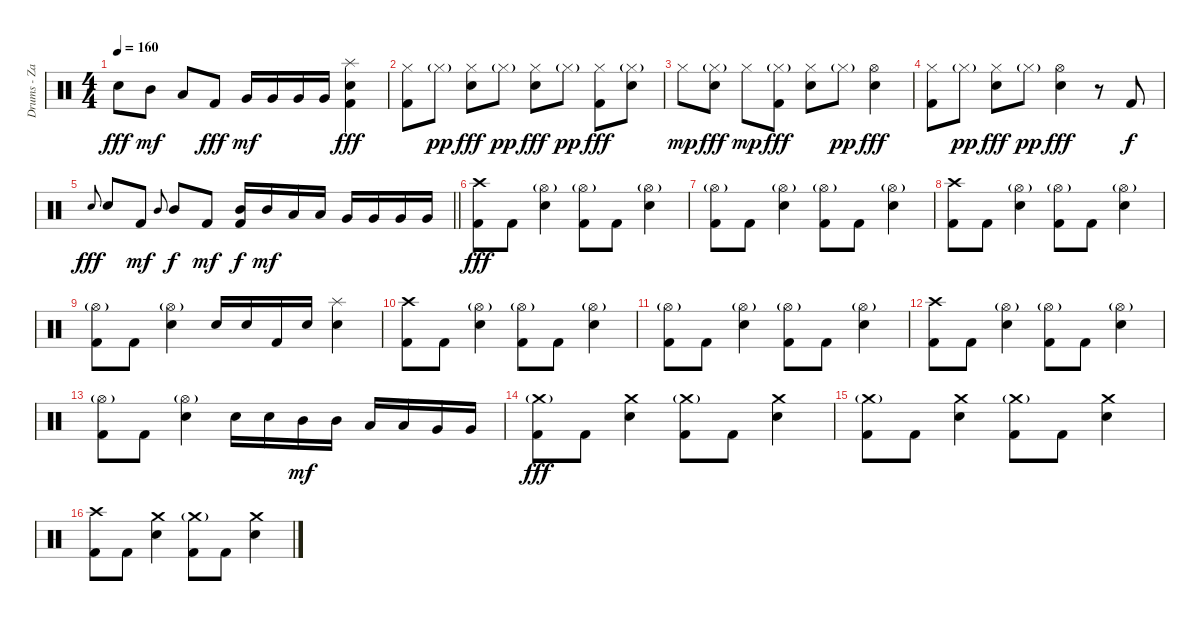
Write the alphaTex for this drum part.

\track ("Drums - Zac Farro" "Drums - Za") {instrument percussion}
\staff {score}
\articulation defaults
\ts (4 4)
\tempo 160
\clef neutral
\ks c "Electric Snare (hit)".8{dy fff} "Mid Tom (hit)".8{dy mf} "Low Tom (hit)".8 "Kick (hit) 2".8{dy fff} "Very Low Tom (hit)".16{dy mf} "Very Low Tom (hit)".16 "Very Low Tom (hit)".16 "Very Low Tom (hit)".16
("Splash (hit)" "Electric Snare (hit)" "Kick (hit) 2").4{dy fff} |
("Hi-Hat (closed)" "Kick (hit) 2").8 "Hi-Hat (closed)"{g}.8{dy pp} ("Hi-Hat (closed)" "Electric Snare (hit)").8{dy fff} "Hi-Hat (closed)"{g}.8{dy pp} ("Hi-Hat (closed)" "Electric Snare (hit)").8{dy fff} "Hi-Hat (closed)"{g}.8{dy pp} ("Hi-Hat (closed)" "Kick (hit) 2").8{dy fff} ("Hi-Hat (closed)"{g} "Electric Snare (hit)").8 |
"Hi-Hat (closed)".8{dy mp} ("Hi-Hat (closed)"{g} "Electric Snare (hit)").8{dy fff} "Hi-Hat (closed)".8{dy mp} ("Hi-Hat (closed)"{g} "Kick (hit) 2").8{dy fff} ("Hi-Hat (closed)" "Electric Snare (hit)").8 "Hi-Hat (closed)"{g}.8{dy pp} ("Hi-Hat (open)" "Electric Snare (hit)").4{dy fff} |
("Hi-Hat (closed)" "Kick (hit) 2").8 "Hi-Hat (closed)"{g}.8{dy pp} ("Hi-Hat (closed)" "Electric Snare (hit)").8{dy fff} "Hi-Hat (closed)"{g}.8{dy pp} ("Hi-Hat (open)" "Electric Snare (hit)").4{dy fff} r.8 "Kick (hit) 2".8{dy f} |
\barLineRight lightlight "Electric Snare (hit)".8{gr onbeat dy fff} "Electric Snare (hit)".8 "Kick (hit) 2".8{dy mf} "Mid Tom (hit)".8{gr onbeat} "Mid Tom (hit)".8{dy f} "Kick (hit) 2".8{dy mf}
("Mid Tom (hit)" "Kick (hit) 2").16{dy f} "Mid Tom (hit)".16{dy mf} "Low Tom (hit)".16 "Low Tom (hit)".16 "Very Low Tom (hit)".16 "Very Low Tom (hit)".16 "Very Low Tom (hit)".16 "Very Low Tom (hit)".16 |
("Crash high (hit)" "Kick (hit) 2").8{dy fff} "Kick (hit) 2".8 ("Hi-Hat (open)"{g} "Electric Snare (hit)").4 ("Hi-Hat (open)"{g} "Kick (hit) 2").8 "Kick (hit) 2".8 ("Hi-Hat (open)"{g} "Electric Snare (hit)").4 |
("Hi-Hat (open)"{g} "Kick (hit) 2").8 "Kick (hit) 2".8 ("Hi-Hat (open)"{g} "Electric Snare (hit)").4 ("Hi-Hat (open)"{g} "Kick (hit) 2").8 "Kick (hit) 2".8 ("Hi-Hat (open)"{g} "Electric Snare (hit)").4 |
("Crash high (hit)" "Kick (hit) 2").8 "Kick (hit) 2".8 ("Hi-Hat (open)"{g} "Electric Snare (hit)").4 ("Hi-Hat (open)"{g} "Kick (hit) 2").8 "Kick (hit) 2".8 ("Hi-Hat (open)"{g} "Electric Snare (hit)").4 |
("Hi-Hat (open)"{g} "Kick (hit) 2").8 "Kick (hit) 2".8 ("Hi-Hat (open)"{g} "Electric Snare (hit)").4 "Electric Snare (hit)".16 "Electric Snare (hit)".16 "Kick (hit) 2".16 "Electric Snare (hit)".16 ("Splash (hit)" "Electric Snare (hit)").4 |
("Crash high (hit)" "Kick (hit) 2").8 "Kick (hit) 2".8 ("Hi-Hat (open)"{g} "Electric Snare (hit)").4 ("Hi-Hat (open)"{g} "Kick (hit) 2").8 "Kick (hit) 2".8 ("Hi-Hat (open)"{g} "Electric Snare (hit)").4 |
("Hi-Hat (open)"{g} "Kick (hit) 2").8 "Kick (hit) 2".8 ("Hi-Hat (open)"{g} "Electric Snare (hit)").4 ("Hi-Hat (open)"{g} "Kick (hit) 2").8 "Kick (hit) 2".8 ("Hi-Hat (open)"{g} "Electric Snare (hit)").4 |
("Crash high (hit)" "Kick (hit) 2").8 "Kick (hit) 2".8 ("Hi-Hat (open)"{g} "Electric Snare (hit)").4 ("Hi-Hat (open)"{g} "Kick (hit) 2").8 "Kick (hit) 2".8 ("Hi-Hat (open)"{g} "Electric Snare (hit)").4 |
("Hi-Hat (open)"{g} "Kick (hit) 2").8 "Kick (hit) 2".8 ("Hi-Hat (open)"{g} "Electric Snare (hit)").4 "Electric Snare (hit)".16 "Electric Snare (hit)".16 "Mid Tom (hit)".16{dy mf} "Mid Tom (hit)".16 "Low Tom (hit)".16 "Low Tom (hit)".16 "Very Low Tom (hit)".16 "Very Low Tom (hit)".16 |
("Crash medium (hit)"{g} "Kick (hit) 2").8{dy fff} "Kick (hit) 2".8 ("Crash medium (hit)" "Electric Snare (hit)").4 ("Crash medium (hit)"{g} "Kick (hit) 2").8 "Kick (hit) 2".8 ("Crash medium (hit)" "Electric Snare (hit)").4 |
("Crash medium (hit)"{g} "Kick (hit) 2").8 "Kick (hit) 2".8 ("Crash medium (hit)" "Electric Snare (hit)").4 ("Crash medium (hit)"{g} "Kick (hit) 2").8 "Kick (hit) 2".8 ("Crash medium (hit)" "Electric Snare (hit)").4 |
("Crash high (hit)" "Kick (hit) 2").8 "Kick (hit) 2".8 ("Crash medium (hit)" "Electric Snare (hit)").4 ("Crash medium (hit)"{g} "Kick (hit) 2").8 "Kick (hit) 2".8 ("Crash medium (hit)" "Electric Snare (hit)").4
